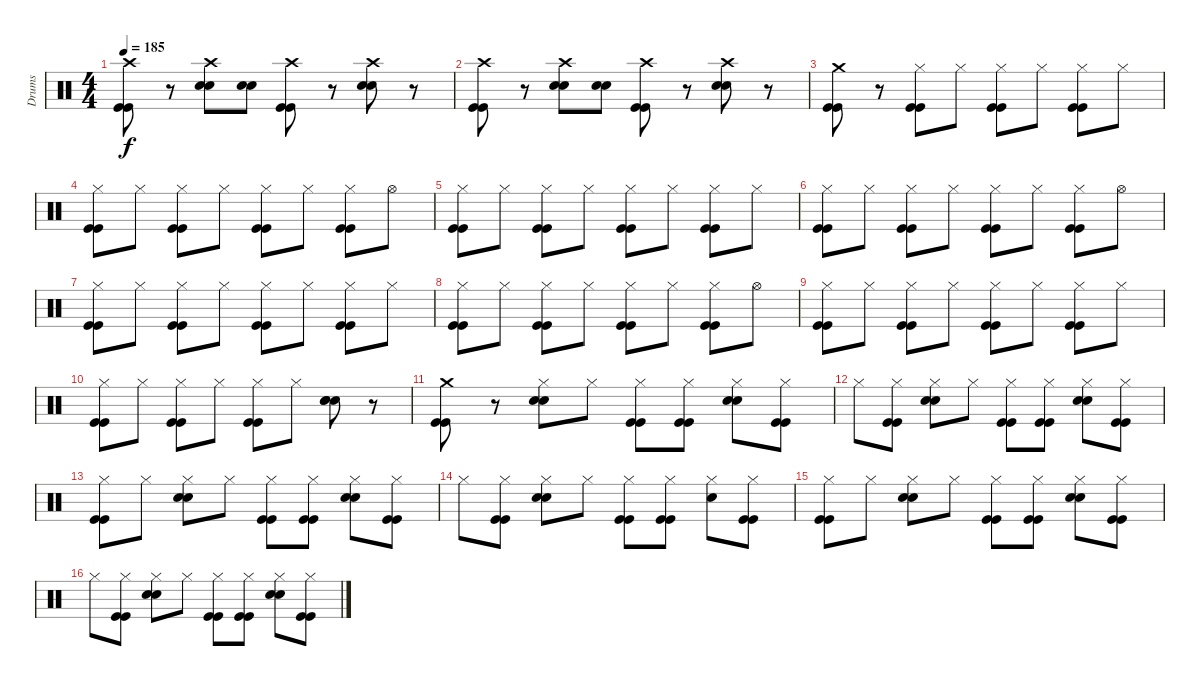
\track ("Drums" "Drums") {instrument percussion}
\staff {score}
\articulation defaults
\ts (4 4)
\tempo 185
\clef neutral
\ks c
("Crash high (hit)" "Kick (hit)" "Kick (hit)").8{dy f} r.8 ("Crash high (hit)" "Electric Snare (hit)" "Electric Snare (hit)").8 ("Electric Snare (hit)" "Electric Snare (hit)").8 ("Crash high (hit)" "Kick (hit)" "Kick (hit)").8 r.8 ("Crash high (hit)" "Electric Snare (hit)" "Electric Snare (hit)").8 r.8 |
("Crash high (hit)" "Kick (hit)" "Kick (hit)").8 r.8 ("Crash high (hit)" "Electric Snare (hit)" "Electric Snare (hit)").8 ("Electric Snare (hit)" "Electric Snare (hit)").8 ("Crash high (hit)" "Kick (hit)" "Kick (hit)").8 r.8 ("Crash high (hit)" "Electric Snare (hit)" "Electric Snare (hit)").8 r.8 |
("Crash medium (hit)" "Kick (hit)" "Kick (hit)").8 r.8 ("Hi-Hat (closed)" "Kick (hit)" "Kick (hit)").8 "Hi-Hat (closed)".8 ("Hi-Hat (closed)" "Kick (hit)" "Kick (hit)").8 "Hi-Hat (closed)".8 ("Hi-Hat (closed)" "Kick (hit)" "Kick (hit)").8 "Hi-Hat (closed)".8 |
("Hi-Hat (closed)" "Kick (hit)" "Kick (hit)").8 "Hi-Hat (closed)".8 ("Hi-Hat (closed)" "Kick (hit)" "Kick (hit)").8 "Hi-Hat (closed)".8 ("Hi-Hat (closed)" "Kick (hit)" "Kick (hit)").8 "Hi-Hat (closed)".8 ("Hi-Hat (closed)" "Kick (hit)" "Kick (hit)").8 "Hi-Hat (open)".8 |
("Hi-Hat (closed)" "Kick (hit)" "Kick (hit)").8 "Hi-Hat (closed)".8 ("Hi-Hat (closed)" "Kick (hit)" "Kick (hit)").8 "Hi-Hat (closed)".8 ("Hi-Hat (closed)" "Kick (hit)" "Kick (hit)").8 "Hi-Hat (closed)".8 ("Hi-Hat (closed)" "Kick (hit)" "Kick (hit)").8 "Hi-Hat (closed)".8 |
("Hi-Hat (closed)" "Kick (hit)" "Kick (hit)").8 "Hi-Hat (closed)".8 ("Hi-Hat (closed)" "Kick (hit)" "Kick (hit)").8 "Hi-Hat (closed)".8 ("Hi-Hat (closed)" "Kick (hit)" "Kick (hit)").8 "Hi-Hat (closed)".8 ("Hi-Hat (closed)" "Kick (hit)" "Kick (hit)").8 "Hi-Hat (open)".8 |
("Hi-Hat (closed)" "Kick (hit)" "Kick (hit)").8 "Hi-Hat (closed)".8 ("Hi-Hat (closed)" "Kick (hit)" "Kick (hit)").8 "Hi-Hat (closed)".8 ("Hi-Hat (closed)" "Kick (hit)" "Kick (hit)").8 "Hi-Hat (closed)".8 ("Hi-Hat (closed)" "Kick (hit)" "Kick (hit)").8 "Hi-Hat (closed)".8 |
("Hi-Hat (closed)" "Kick (hit)" "Kick (hit)").8 "Hi-Hat (closed)".8 ("Hi-Hat (closed)" "Kick (hit)" "Kick (hit)").8 "Hi-Hat (closed)".8 ("Hi-Hat (closed)" "Kick (hit)" "Kick (hit)").8 "Hi-Hat (closed)".8 ("Hi-Hat (closed)" "Kick (hit)" "Kick (hit)").8 "Hi-Hat (open)".8 |
("Hi-Hat (closed)" "Kick (hit)" "Kick (hit)").8 "Hi-Hat (closed)".8 ("Hi-Hat (closed)" "Kick (hit)" "Kick (hit)").8 "Hi-Hat (closed)".8 ("Hi-Hat (closed)" "Kick (hit)" "Kick (hit)").8 "Hi-Hat (closed)".8 ("Hi-Hat (closed)" "Kick (hit)" "Kick (hit)").8 "Hi-Hat (closed)".8 |
("Hi-Hat (closed)" "Kick (hit)" "Kick (hit)").8 "Hi-Hat (closed)".8 ("Hi-Hat (closed)" "Kick (hit)" "Kick (hit)").8 "Hi-Hat (closed)".8 ("Hi-Hat (closed)" "Kick (hit)" "Kick (hit)").8 "Hi-Hat (closed)".8 ("Electric Snare (hit)" "Electric Snare (hit)" "Electric Snare (hit)").8 r.8 |
("Crash medium (hit)" "Kick (hit)" "Kick (hit)").8 r.8 ("Hi-Hat (closed)" "Electric Snare (hit)" "Electric Snare (hit)").8 "Hi-Hat (closed)".8 ("Hi-Hat (closed)" "Kick (hit)" "Kick (hit)").8 ("Hi-Hat (closed)" "Kick (hit)" "Kick (hit)").8 ("Hi-Hat (closed)" "Electric Snare (hit)" "Electric Snare (hit)").8 ("Hi-Hat (closed)" "Kick (hit)" "Kick (hit)").8 |
"Hi-Hat (closed)".8 ("Hi-Hat (closed)" "Kick (hit)" "Kick (hit)").8 ("Hi-Hat (closed)" "Electric Snare (hit)" "Electric Snare (hit)").8 "Hi-Hat (closed)".8 ("Hi-Hat (closed)" "Kick (hit)" "Kick (hit)").8 ("Hi-Hat (closed)" "Kick (hit)" "Kick (hit)").8 ("Hi-Hat (closed)" "Electric Snare (hit)" "Electric Snare (hit)").8 ("Hi-Hat (closed)" "Kick (hit)" "Kick (hit)").8 |
("Hi-Hat (closed)" "Kick (hit)" "Kick (hit)").8 "Hi-Hat (closed)".8 ("Hi-Hat (closed)" "Electric Snare (hit)" "Electric Snare (hit)").8 "Hi-Hat (closed)".8 ("Hi-Hat (closed)" "Kick (hit)" "Kick (hit)").8 ("Hi-Hat (closed)" "Kick (hit)" "Kick (hit)").8 ("Hi-Hat (closed)" "Electric Snare (hit)" "Electric Snare (hit)").8 ("Hi-Hat (closed)" "Kick (hit)" "Kick (hit)").8 |
"Hi-Hat (closed)".8 ("Hi-Hat (closed)" "Kick (hit)" "Kick (hit)").8 ("Hi-Hat (closed)" "Electric Snare (hit)" "Electric Snare (hit)").8 "Hi-Hat (closed)".8 ("Hi-Hat (closed)" "Kick (hit)" "Kick (hit)").8 ("Hi-Hat (closed)" "Kick (hit)" "Kick (hit)").8 ("Hi-Hat (closed)" "Electric Snare (hit)").8 ("Hi-Hat (closed)" "Kick (hit)" "Kick (hit)").8 |
("Hi-Hat (closed)" "Kick (hit)" "Kick (hit)").8 "Hi-Hat (closed)".8 ("Hi-Hat (closed)" "Electric Snare (hit)" "Electric Snare (hit)").8 "Hi-Hat (closed)".8 ("Hi-Hat (closed)" "Kick (hit)" "Kick (hit)").8 ("Hi-Hat (closed)" "Kick (hit)" "Kick (hit)").8 ("Hi-Hat (closed)" "Electric Snare (hit)" "Electric Snare (hit)").8 ("Hi-Hat (closed)" "Kick (hit)" "Kick (hit)").8 |
"Hi-Hat (closed)".8 ("Hi-Hat (closed)" "Kick (hit)" "Kick (hit)").8 ("Hi-Hat (closed)" "Electric Snare (hit)" "Electric Snare (hit)").8 "Hi-Hat (closed)".8 ("Hi-Hat (closed)" "Kick (hit)" "Kick (hit)").8 ("Hi-Hat (closed)" "Kick (hit)" "Kick (hit)").8 ("Hi-Hat (closed)" "Electric Snare (hit)" "Electric Snare (hit)").8 ("Hi-Hat (closed)" "Kick (hit)" "Kick (hit)").8
